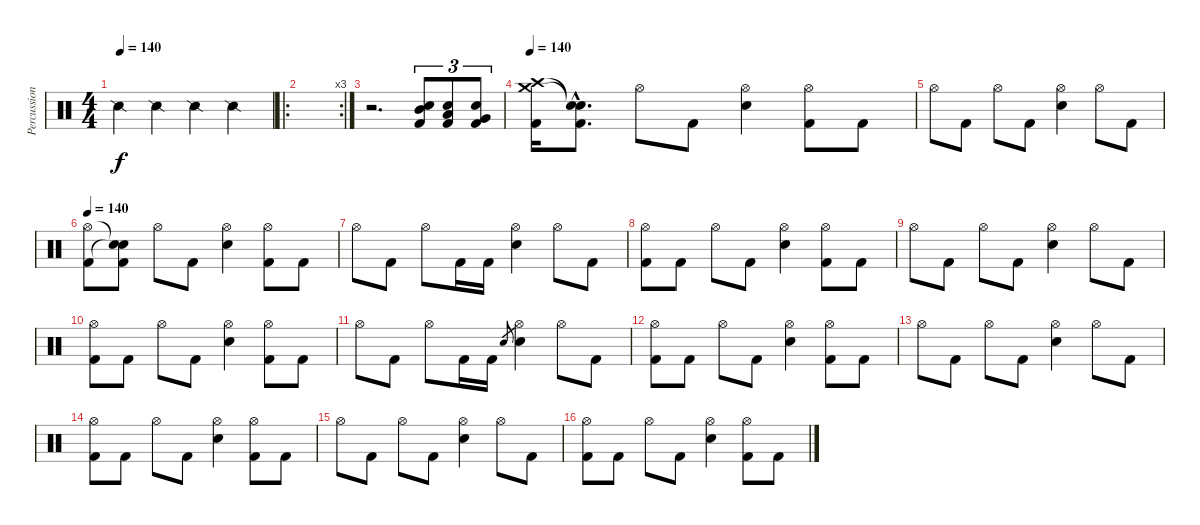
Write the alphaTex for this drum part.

\track ("Percussion" "Percussion") {instrument percussion}
\staff {score}
\articulation defaults
\ts (4 4)
\tempo 140
\tempo 70
\tempo 140
\clef neutral
\ks c "Snare (side stick) 2".4{dy f} "Snare (side stick) 2".4 "Snare (side stick) 2".4 "Snare (side stick) 2".4
|
\ro
\rc 3
|
r.2{d} ("Mid Tom (hit)" "Electric Snare (hit)" "Kick (hit) 2").8{tu (3 2)} ("Low Tom (hit)" "Electric Snare (hit)" "Kick (hit) 2").8{tu (3 2)} ("Very Low Tom (hit)" "Electric Snare (hit)" "Kick (hit) 2").8{tu (3 2)} |
\tempo 140
("Crash high (hit)" "Crash medium (hit)" "Kick (hit) 2").16 ("Snare (hit)"{hac t} "Snare (hit)"{hac t} "Kick (hit) 2"{hac}).8{d} "Hi-Hat (open)".8 "Kick (hit) 2".8 ("Hi-Hat (open)" "Electric Snare (hit)").4 ("Hi-Hat (open)" "Kick (hit) 2").8 "Kick (hit) 2".8 |
"Hi-Hat (open)".8 "Kick (hit) 2".8 "Hi-Hat (open)".8 "Kick (hit) 2".8 ("Hi-Hat (open)" "Electric Snare (hit)").4 "Hi-Hat (open)".8 "Kick (hit) 2".8 |
\tempo 140
("Hi-Hat (open)" "Kick (hit) 2").8 ("Snare (hit)"{t} "Snare (hit)"{t} "Kick (hit) 2").8 "Hi-Hat (open)".8 "Kick (hit) 2".8 ("Hi-Hat (open)" "Electric Snare (hit)").4 ("Hi-Hat (open)" "Kick (hit) 2").8 "Kick (hit) 2".8 |
"Hi-Hat (open)".8 "Kick (hit) 2".8 "Hi-Hat (open)".8 "Kick (hit) 2".16 "Kick (hit) 2".16 ("Hi-Hat (open)" "Electric Snare (hit)").4 "Hi-Hat (open)".8 "Kick (hit) 2".8 |
("Hi-Hat (open)" "Kick (hit) 2").8 "Kick (hit) 2".8 "Hi-Hat (open)".8 "Kick (hit) 2".8 ("Hi-Hat (open)" "Electric Snare (hit)").4 ("Hi-Hat (open)" "Kick (hit) 2").8 "Kick (hit) 2".8 |
"Hi-Hat (open)".8 "Kick (hit) 2".8 "Hi-Hat (open)".8 "Kick (hit) 2".8 ("Hi-Hat (open)" "Electric Snare (hit)").4 "Hi-Hat (open)".8 "Kick (hit) 2".8 |
("Hi-Hat (open)" "Kick (hit) 2").8 "Kick (hit) 2".8 "Hi-Hat (open)".8 "Kick (hit) 2".8 ("Hi-Hat (open)" "Electric Snare (hit)").4 ("Hi-Hat (open)" "Kick (hit) 2").8 "Kick (hit) 2".8 |
"Hi-Hat (open)".8 "Kick (hit) 2".8 "Hi-Hat (open)".8 "Kick (hit) 2".16 "Kick (hit) 2".16 "Electric Snare (hit)".8{gr} ("Hi-Hat (open)" "Electric Snare (hit)").4 "Hi-Hat (open)".8 "Kick (hit) 2".8 |
("Hi-Hat (open)" "Kick (hit) 2").8 "Kick (hit) 2".8 "Hi-Hat (open)".8 "Kick (hit) 2".8 ("Hi-Hat (open)" "Electric Snare (hit)").4 ("Hi-Hat (open)" "Kick (hit) 2").8 "Kick (hit) 2".8 |
"Hi-Hat (open)".8 "Kick (hit) 2".8 "Hi-Hat (open)".8 "Kick (hit) 2".8 ("Hi-Hat (open)" "Electric Snare (hit)").4 "Hi-Hat (open)".8 "Kick (hit) 2".8 |
("Hi-Hat (open)" "Kick (hit) 2").8 "Kick (hit) 2".8 "Hi-Hat (open)".8 "Kick (hit) 2".8 ("Hi-Hat (open)" "Electric Snare (hit)").4 ("Hi-Hat (open)" "Kick (hit) 2").8 "Kick (hit) 2".8 |
"Hi-Hat (open)".8 "Kick (hit) 2".8 "Hi-Hat (open)".8 "Kick (hit) 2".8 ("Hi-Hat (open)" "Electric Snare (hit)").4 "Hi-Hat (open)".8 "Kick (hit) 2".8 |
("Hi-Hat (open)" "Kick (hit) 2").8 "Kick (hit) 2".8 "Hi-Hat (open)".8 "Kick (hit) 2".8 ("Hi-Hat (open)" "Electric Snare (hit)").4 ("Hi-Hat (open)" "Kick (hit) 2").8 "Kick (hit) 2".8
